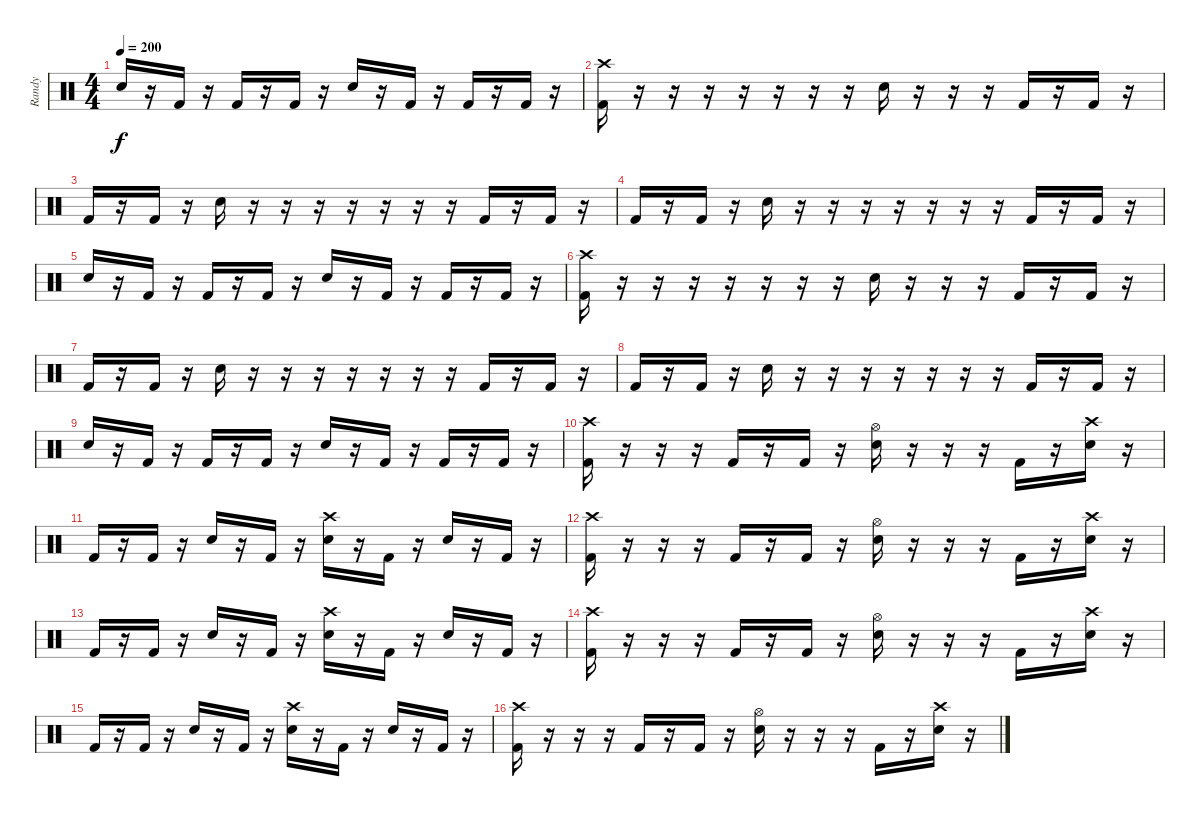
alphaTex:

\track ("Randy" "Randy") {instrument percussion}
\staff {score}
\articulation defaults
\ts (4 4)
\tempo 200
\clef neutral
\ks c "Electric Snare (hit)".16{dy f}
r.16 "Kick (hit) 2".16 r.16 "Kick (hit) 2".16 r.16 "Kick (hit) 2".16 r.16 "Electric Snare (hit)".16 r.16 "Kick (hit) 2".16 r.16 "Kick (hit) 2".16 r.16 "Kick (hit) 2".16 r.16 |
("Kick (hit) 2" "Crash high (hit)").16 r.16 r.16 r.16 r.16 r.16 r.16 r.16 "Electric Snare (hit)".16 r.16 r.16 r.16 "Kick (hit) 2".16 r.16 "Kick (hit) 2".16 r.16 |
"Kick (hit) 2".16 r.16 "Kick (hit) 2".16 r.16 "Electric Snare (hit)".16 r.16 r.16 r.16 r.16 r.16 r.16 r.16 "Kick (hit) 2".16 r.16 "Kick (hit) 2".16 r.16 |
"Kick (hit) 2".16 r.16 "Kick (hit) 2".16 r.16 "Electric Snare (hit)".16 r.16 r.16 r.16 r.16 r.16 r.16 r.16 "Kick (hit) 2".16 r.16 "Kick (hit) 2".16 r.16 |
"Electric Snare (hit)".16 r.16 "Kick (hit) 2".16 r.16 "Kick (hit) 2".16 r.16 "Kick (hit) 2".16 r.16 "Electric Snare (hit)".16 r.16 "Kick (hit) 2".16 r.16 "Kick (hit) 2".16 r.16 "Kick (hit) 2".16 r.16 |
("Kick (hit) 2" "Crash high (hit)").16 r.16 r.16 r.16 r.16 r.16 r.16 r.16 "Electric Snare (hit)".16 r.16 r.16 r.16 "Kick (hit) 2".16 r.16 "Kick (hit) 2".16 r.16 |
"Kick (hit) 2".16 r.16 "Kick (hit) 2".16 r.16 "Electric Snare (hit)".16 r.16 r.16 r.16 r.16 r.16 r.16 r.16 "Kick (hit) 2".16 r.16 "Kick (hit) 2".16 r.16 |
"Kick (hit) 2".16 r.16 "Kick (hit) 2".16 r.16 "Electric Snare (hit)".16 r.16 r.16 r.16 r.16 r.16 r.16 r.16 "Kick (hit) 2".16 r.16 "Kick (hit) 2".16 r.16 |
"Electric Snare (hit)".16 r.16 "Kick (hit) 2".16 r.16 "Kick (hit) 2".16 r.16 "Kick (hit) 2".16 r.16 "Electric Snare (hit)".16 r.16 "Kick (hit) 2".16 r.16 "Kick (hit) 2".16 r.16 "Kick (hit) 2".16 r.16 |
("Kick (hit) 2" "Crash high (hit)").16 r.16 r.16 r.16 "Kick (hit) 2".16 r.16 "Kick (hit) 2".16 r.16 ("Electric Snare (hit)" "Hi-Hat (open)").16 r.16 r.16 r.16 "Kick (hit) 2".16 r.16 ("Electric Snare (hit)" "Crash high (hit)").16 r.16 |
"Kick (hit) 2".16 r.16 "Kick (hit) 2".16 r.16 "Electric Snare (hit)".16 r.16 "Kick (hit) 2".16 r.16 ("Electric Snare (hit)" "Crash high (hit)").16 r.16 "Kick (hit) 2".16 r.16 "Electric Snare (hit)".16 r.16 "Kick (hit) 2".16 r.16 |
("Kick (hit) 2" "Crash high (hit)").16 r.16 r.16 r.16 "Kick (hit) 2".16 r.16 "Kick (hit) 2".16 r.16 ("Electric Snare (hit)" "Hi-Hat (open)").16 r.16 r.16 r.16 "Kick (hit) 2".16 r.16 ("Electric Snare (hit)" "Crash high (hit)").16 r.16 |
"Kick (hit) 2".16 r.16 "Kick (hit) 2".16 r.16 "Electric Snare (hit)".16 r.16 "Kick (hit) 2".16 r.16 ("Electric Snare (hit)" "Crash high (hit)").16 r.16 "Kick (hit) 2".16 r.16 "Electric Snare (hit)".16 r.16 "Kick (hit) 2".16 r.16 |
("Kick (hit) 2" "Crash high (hit)").16 r.16 r.16 r.16 "Kick (hit) 2".16 r.16 "Kick (hit) 2".16 r.16 ("Electric Snare (hit)" "Hi-Hat (open)").16 r.16 r.16 r.16 "Kick (hit) 2".16 r.16 ("Electric Snare (hit)" "Crash high (hit)").16 r.16 |
"Kick (hit) 2".16 r.16 "Kick (hit) 2".16 r.16 "Electric Snare (hit)".16 r.16 "Kick (hit) 2".16 r.16 ("Electric Snare (hit)" "Crash high (hit)").16 r.16 "Kick (hit) 2".16 r.16 "Electric Snare (hit)".16 r.16 "Kick (hit) 2".16 r.16 |
("Kick (hit) 2" "Crash high (hit)").16 r.16 r.16 r.16 "Kick (hit) 2".16 r.16 "Kick (hit) 2".16 r.16 ("Electric Snare (hit)" "Hi-Hat (open)").16 r.16 r.16 r.16 "Kick (hit) 2".16 r.16 ("Electric Snare (hit)" "Crash high (hit)").16 r.16
